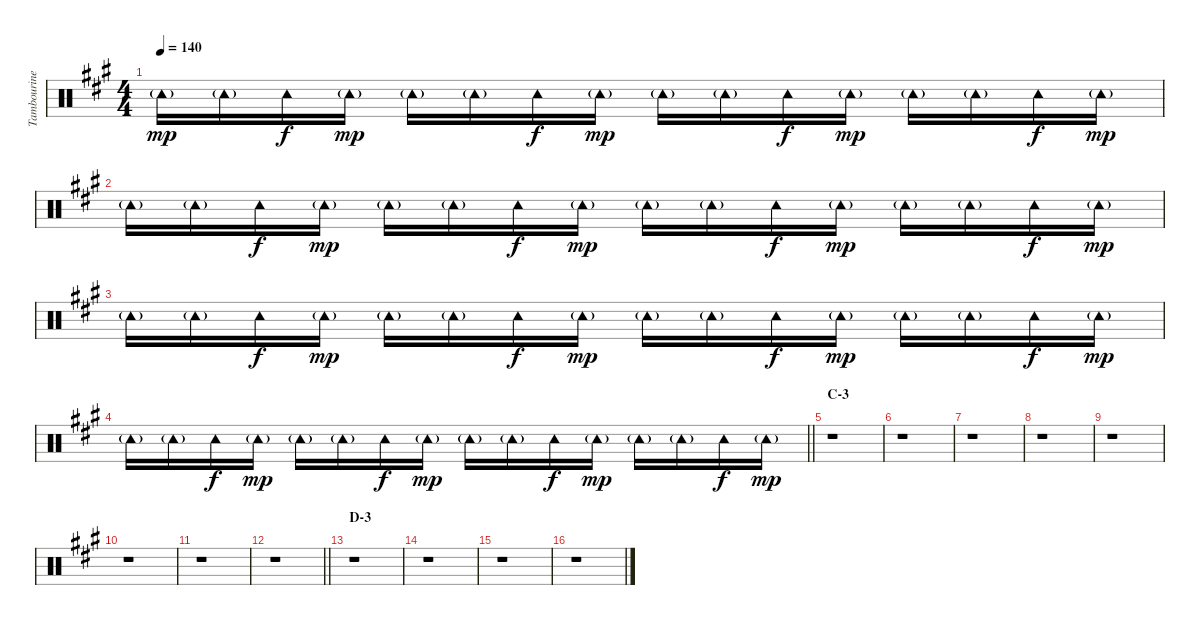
\track ("Tambourine" "Tambourine") {instrument percussion}
\staff {score}
\articulation defaults
\ts (4 4)
\tempo 140
\clef neutral
\ks a "Tambourine (hit)"{g}.16{dy mp} "Tambourine (hit)"{g}.16 "Tambourine (hit)".16{dy f} "Tambourine (hit)"{g}.16{dy mp} "Tambourine (hit)"{g}.16 "Tambourine (hit)"{g}.16 "Tambourine (hit)".16{dy f} "Tambourine (hit)"{g}.16{dy mp} "Tambourine (hit)"{g}.16 "Tambourine (hit)"{g}.16 "Tambourine (hit)".16{dy f} "Tambourine (hit)"{g}.16{dy mp} "Tambourine (hit)"{g}.16 "Tambourine (hit)"{g}.16 "Tambourine (hit)".16{dy f} "Tambourine (hit)"{g}.16{dy mp}
|
"Tambourine (hit)"{g}.16 "Tambourine (hit)"{g}.16 "Tambourine (hit)".16{dy f} "Tambourine (hit)"{g}.16{dy mp} "Tambourine (hit)"{g}.16 "Tambourine (hit)"{g}.16 "Tambourine (hit)".16{dy f} "Tambourine (hit)"{g}.16{dy mp} "Tambourine (hit)"{g}.16 "Tambourine (hit)"{g}.16 "Tambourine (hit)".16{dy f} "Tambourine (hit)"{g}.16{dy mp} "Tambourine (hit)"{g}.16 "Tambourine (hit)"{g}.16 "Tambourine (hit)".16{dy f} "Tambourine (hit)"{g}.16{dy mp} |
"Tambourine (hit)"{g}.16 "Tambourine (hit)"{g}.16 "Tambourine (hit)".16{dy f} "Tambourine (hit)"{g}.16{dy mp} "Tambourine (hit)"{g}.16 "Tambourine (hit)"{g}.16 "Tambourine (hit)".16{dy f} "Tambourine (hit)"{g}.16{dy mp} "Tambourine (hit)"{g}.16 "Tambourine (hit)"{g}.16 "Tambourine (hit)".16{dy f} "Tambourine (hit)"{g}.16{dy mp} "Tambourine (hit)"{g}.16 "Tambourine (hit)"{g}.16 "Tambourine (hit)".16{dy f} "Tambourine (hit)"{g}.16{dy mp} |
\barLineRight lightlight "Tambourine (hit)"{g}.16 "Tambourine (hit)"{g}.16 "Tambourine (hit)".16{dy f} "Tambourine (hit)"{g}.16{dy mp} "Tambourine (hit)"{g}.16 "Tambourine (hit)"{g}.16 "Tambourine (hit)".16{dy f} "Tambourine (hit)"{g}.16{dy mp} "Tambourine (hit)"{g}.16 "Tambourine (hit)"{g}.16 "Tambourine (hit)".16{dy f} "Tambourine (hit)"{g}.16{dy mp} "Tambourine (hit)"{g}.16 "Tambourine (hit)"{g}.16 "Tambourine (hit)".16{dy f} "Tambourine (hit)"{g}.16{dy mp}
|
\section ("" "C-3")
r.1 |
r.1 |
r.1 |
r.1 |
r.1 |
r.1 |
r.1 |
\barLineRight lightlight
r.1 |
\section ("" "D-3")
r.1 |
r.1 |
r.1 |
r.1
